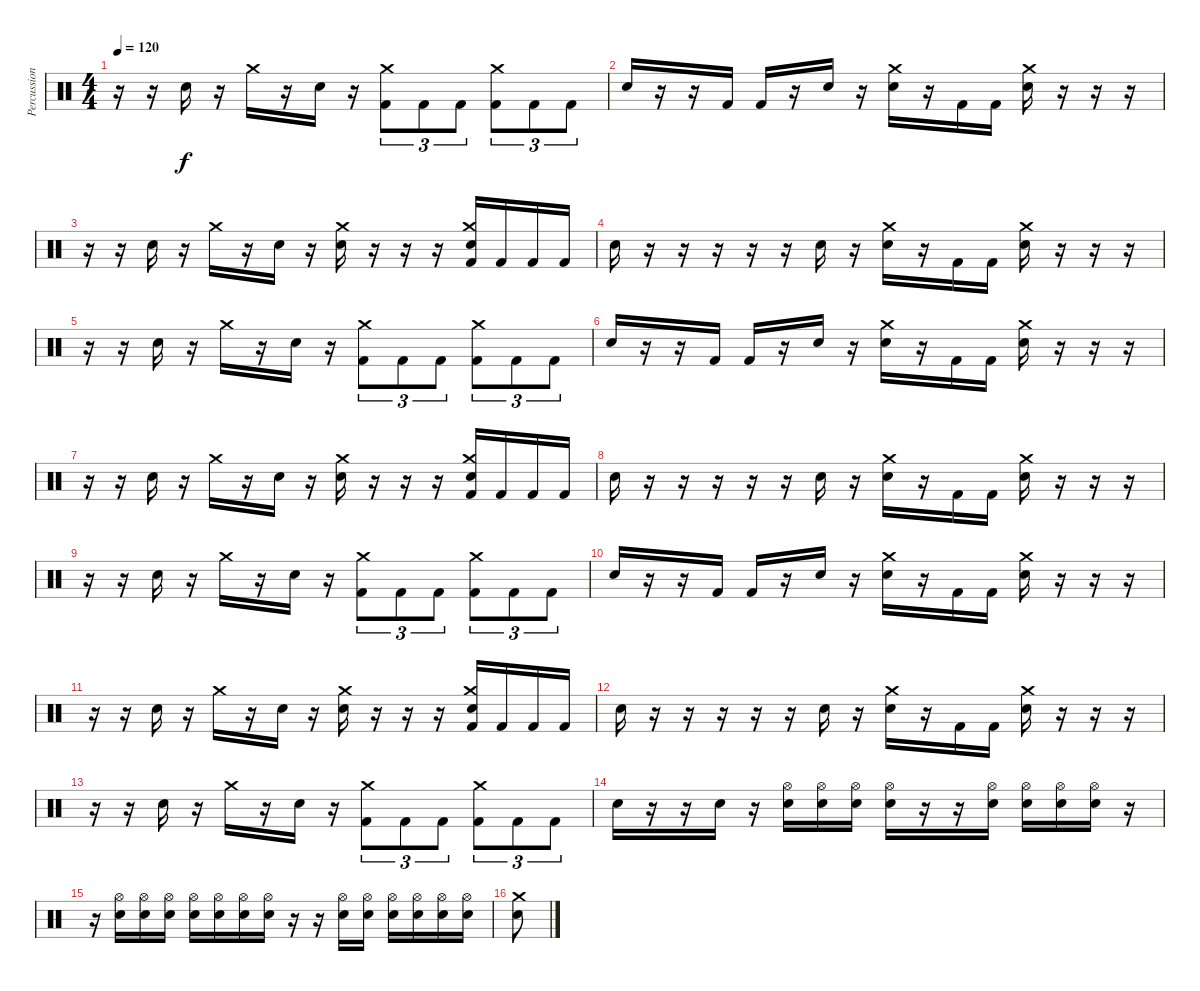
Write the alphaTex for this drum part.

\track ("Percussion" "Percussion") {instrument percussion}
\staff {score}
\articulation defaults
\ts (4 4)
\tempo 120
\clef neutral
\ks c
r.16{dy f} r.16 "Snare (hit) 2".16 r.16 "Crash medium (hit)".16 r.16 "Snare (hit) 2".16 r.16 ("Crash medium (hit)" "Kick (hit) 2").8{tu (3 2)} "Kick (hit) 2".8{tu (3 2)} "Kick (hit) 2".8{tu (3 2)} ("Crash medium (hit)" "Kick (hit) 2").8{tu (3 2)} "Kick (hit) 2".8{tu (3 2)} "Kick (hit) 2".8{tu (3 2)} |
"Snare (hit) 2".16 r.16 r.16 "Kick (hit) 2".16 "Kick (hit) 2".16 r.16 "Snare (hit) 2".16 r.16 ("Crash medium (hit)" "Snare (hit) 2").16 r.16 "Kick (hit) 2".16 "Kick (hit) 2".16 ("Crash medium (hit)" "Snare (hit) 2").16 r.16 r.16 r.16 |
r.16 r.16 "Snare (hit) 2".16 r.16 "Crash medium (hit)".16 r.16 "Snare (hit) 2".16 r.16 ("Crash medium (hit)" "Snare (hit) 2").16 r.16 r.16 r.16 ("Crash medium (hit)" "Snare (hit) 2" "Kick (hit) 2").16 "Kick (hit) 2".16 "Kick (hit) 2".16 "Kick (hit) 2".16 |
"Snare (hit) 2".16 r.16 r.16 r.16 r.16 r.16 "Snare (hit) 2".16 r.16 ("Crash medium (hit)" "Snare (hit) 2").16 r.16 "Kick (hit) 2".16 "Kick (hit) 2".16 ("Crash medium (hit)" "Snare (hit) 2").16 r.16 r.16 r.16 |
r.16 r.16 "Snare (hit) 2".16 r.16 "Crash medium (hit)".16 r.16 "Snare (hit) 2".16 r.16 ("Crash medium (hit)" "Kick (hit) 2").8{tu (3 2)} "Kick (hit) 2".8{tu (3 2)} "Kick (hit) 2".8{tu (3 2)} ("Crash medium (hit)" "Kick (hit) 2").8{tu (3 2)} "Kick (hit) 2".8{tu (3 2)} "Kick (hit) 2".8{tu (3 2)} |
"Snare (hit) 2".16 r.16 r.16 "Kick (hit) 2".16 "Kick (hit) 2".16 r.16 "Snare (hit) 2".16 r.16 ("Crash medium (hit)" "Snare (hit) 2").16 r.16 "Kick (hit) 2".16 "Kick (hit) 2".16 ("Crash medium (hit)" "Snare (hit) 2").16 r.16 r.16 r.16 |
r.16 r.16 "Snare (hit) 2".16 r.16 "Crash medium (hit)".16 r.16 "Snare (hit) 2".16 r.16 ("Crash medium (hit)" "Snare (hit) 2").16 r.16 r.16 r.16 ("Crash medium (hit)" "Snare (hit) 2" "Kick (hit) 2").16 "Kick (hit) 2".16 "Kick (hit) 2".16 "Kick (hit) 2".16 |
"Snare (hit) 2".16 r.16 r.16 r.16 r.16 r.16 "Snare (hit) 2".16 r.16 ("Crash medium (hit)" "Snare (hit) 2").16 r.16 "Kick (hit) 2".16 "Kick (hit) 2".16 ("Crash medium (hit)" "Snare (hit) 2").16 r.16 r.16 r.16 |
r.16 r.16 "Snare (hit) 2".16 r.16 "Crash medium (hit)".16 r.16 "Snare (hit) 2".16 r.16 ("Crash medium (hit)" "Kick (hit) 2").8{tu (3 2)} "Kick (hit) 2".8{tu (3 2)} "Kick (hit) 2".8{tu (3 2)} ("Crash medium (hit)" "Kick (hit) 2").8{tu (3 2)} "Kick (hit) 2".8{tu (3 2)} "Kick (hit) 2".8{tu (3 2)} |
"Snare (hit) 2".16 r.16 r.16 "Kick (hit) 2".16 "Kick (hit) 2".16 r.16 "Snare (hit) 2".16 r.16 ("Crash medium (hit)" "Snare (hit) 2").16 r.16 "Kick (hit) 2".16 "Kick (hit) 2".16 ("Crash medium (hit)" "Snare (hit) 2").16 r.16 r.16 r.16 |
r.16 r.16 "Snare (hit) 2".16 r.16 "Crash medium (hit)".16 r.16 "Snare (hit) 2".16 r.16 ("Crash medium (hit)" "Snare (hit) 2").16 r.16 r.16 r.16 ("Crash medium (hit)" "Snare (hit) 2" "Kick (hit) 2").16 "Kick (hit) 2".16 "Kick (hit) 2".16 "Kick (hit) 2".16 |
"Snare (hit) 2".16 r.16 r.16 r.16 r.16 r.16 "Snare (hit) 2".16 r.16 ("Crash medium (hit)" "Snare (hit) 2").16 r.16 "Kick (hit) 2".16 "Kick (hit) 2".16 ("Crash medium (hit)" "Snare (hit) 2").16 r.16 r.16 r.16 |
r.16 r.16 "Snare (hit) 2".16 r.16 "Crash medium (hit)".16 r.16 "Snare (hit) 2".16 r.16 ("Crash medium (hit)" "Kick (hit) 2").8{tu (3 2)} "Kick (hit) 2".8{tu (3 2)} "Kick (hit) 2".8{tu (3 2)} ("Crash medium (hit)" "Kick (hit) 2").8{tu (3 2)} "Kick (hit) 2".8{tu (3 2)} "Kick (hit) 2".8{tu (3 2)} |
"Snare (hit) 2".16 r.16 r.16 "Snare (hit) 2".16 r.16 ("Hi-Hat (open)" "Snare (hit) 2").16 ("Hi-Hat (open)" "Snare (hit) 2").16 ("Hi-Hat (open)" "Snare (hit) 2").16 ("Hi-Hat (open)" "Snare (hit) 2").16 r.16 r.16 ("Hi-Hat (open)" "Snare (hit) 2").16 ("Hi-Hat (open)" "Snare (hit) 2").16 ("Hi-Hat (open)" "Snare (hit) 2").16 ("Hi-Hat (open)" "Snare (hit) 2").16 r.16 |
r.16 ("Hi-Hat (open)" "Snare (hit) 2").16 ("Hi-Hat (open)" "Snare (hit) 2").16 ("Hi-Hat (open)" "Snare (hit) 2").16 ("Hi-Hat (open)" "Snare (hit) 2").16 ("Hi-Hat (open)" "Snare (hit) 2").16 ("Hi-Hat (open)" "Snare (hit) 2").16 ("Hi-Hat (open)" "Snare (hit) 2").16 r.16 r.16 ("Hi-Hat (open)" "Snare (hit) 2").16 ("Hi-Hat (open)" "Snare (hit) 2").16 ("Hi-Hat (open)" "Snare (hit) 2").16 ("Hi-Hat (open)" "Snare (hit) 2").16 ("Hi-Hat (open)" "Snare (hit) 2").16 ("Hi-Hat (open)" "Snare (hit) 2").16 |
("Crash medium (hit)" "Snare (hit) 2").8
